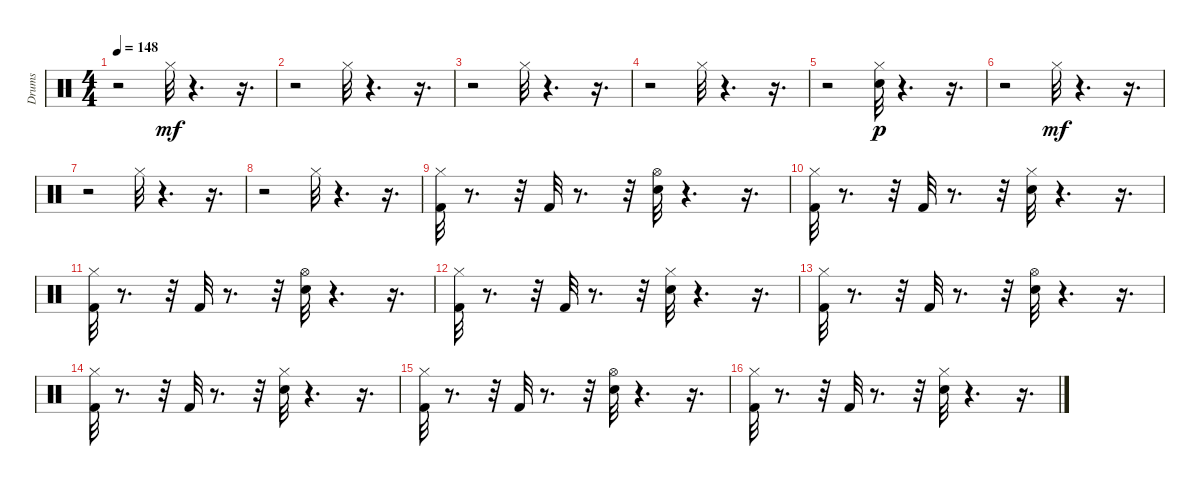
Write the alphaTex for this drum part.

\track ("Drums" "Drums") {instrument percussion}
\staff {score}
\articulation defaults
\ts (4 4)
\tempo 148
\clef neutral
\ks c
r.2{dy mf} "Hi-Hat (closed)".32 r.4{d} r.16{d} |
r.2 "Hi-Hat (closed)".32 r.4{d} r.16{d} |
r.2 "Hi-Hat (closed)".32 r.4{d} r.16{d} |
r.2 "Hi-Hat (closed)".32 r.4{d} r.16{d} |
r.2 ("Hi-Hat (closed)" "Electric Snare (hit)").32{dy p} r.4{d} r.16{d} |
r.2 "Hi-Hat (closed)".32{dy mf} r.4{d} r.16{d} |
r.2 "Hi-Hat (closed)".32 r.4{d} r.16{d} |
r.2 "Hi-Hat (closed)".32 r.4{d} r.16{d} |
("Hi-Hat (closed)" "Kick (hit) 2").32 r.8{d} r.32 "Kick (hit) 2".32 r.8{d} r.32 ("Hi-Hat (open)" "Electric Snare (hit)").32 r.4{d} r.16{d} |
("Kick (hit) 2" "Hi-Hat (closed)").32 r.8{d} r.32 "Kick (hit) 2".32 r.8{d} r.32 ("Electric Snare (hit)" "Hi-Hat (closed)").32 r.4{d} r.16{d} |
("Hi-Hat (closed)" "Kick (hit) 2").32 r.8{d} r.32 "Kick (hit) 2".32 r.8{d} r.32 ("Hi-Hat (open)" "Electric Snare (hit)").32 r.4{d} r.16{d} |
("Kick (hit) 2" "Hi-Hat (closed)").32 r.8{d} r.32 "Kick (hit) 2".32 r.8{d} r.32 ("Electric Snare (hit)" "Hi-Hat (closed)").32 r.4{d} r.16{d} |
("Hi-Hat (closed)" "Kick (hit) 2").32 r.8{d} r.32 "Kick (hit) 2".32 r.8{d} r.32 ("Hi-Hat (open)" "Electric Snare (hit)").32 r.4{d} r.16{d} |
("Kick (hit) 2" "Hi-Hat (closed)").32 r.8{d} r.32 "Kick (hit) 2".32 r.8{d} r.32 ("Electric Snare (hit)" "Hi-Hat (closed)").32 r.4{d} r.16{d} |
("Hi-Hat (closed)" "Kick (hit) 2").32 r.8{d} r.32 "Kick (hit) 2".32 r.8{d} r.32 ("Hi-Hat (open)" "Electric Snare (hit)").32 r.4{d} r.16{d} |
("Kick (hit) 2" "Hi-Hat (closed)").32 r.8{d} r.32 "Kick (hit) 2".32 r.8{d} r.32 ("Electric Snare (hit)" "Hi-Hat (closed)").32 r.4{d} r.16{d}
